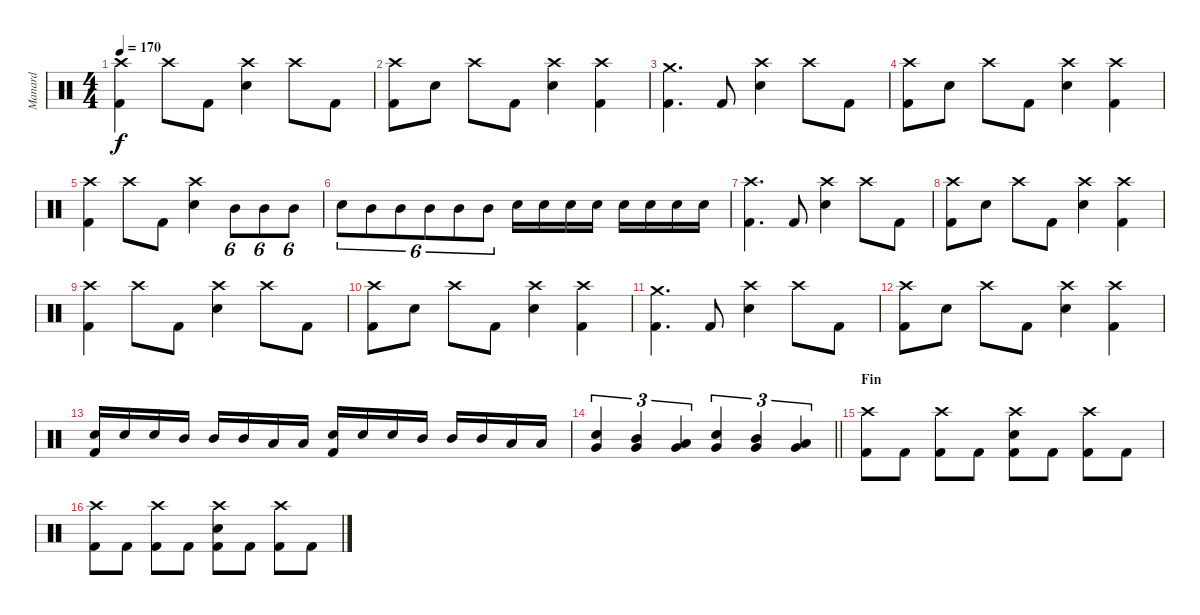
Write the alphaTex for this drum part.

\track ("Manard" "Manard") {instrument percussion}
\staff {score}
\articulation defaults
\ts (4 4)
\tempo 170
\clef neutral
\ks c
("Crash high (hit)" "Kick (hit) 2").4{dy f} "Crash high (hit)".8 "Kick (hit) 2".8 ("Crash high (hit)" "Snare (hit) 2").4 "Crash high (hit)".8 "Kick (hit) 2".8 |
("Crash high (hit)" "Kick (hit) 2").8 "Snare (hit) 2".8 "Crash high (hit)".8 "Kick (hit) 2".8 ("Crash high (hit)" "Snare (hit) 2").4 ("Crash high (hit)" "Kick (hit) 2").4 |
("Crash medium (hit)" "Kick (hit) 2").4{d} "Kick (hit) 2".8 ("Crash high (hit)" "Snare (hit) 2").4 "Crash high (hit)".8 "Kick (hit) 2".8 |
("Crash high (hit)" "Kick (hit) 2").8 "Snare (hit) 2".8 "Crash high (hit)".8 "Kick (hit) 2".8 ("Crash high (hit)" "Snare (hit) 2").4 ("Crash high (hit)" "Kick (hit) 2").4 |
("Crash high (hit)" "Kick (hit) 2").4 "Crash high (hit)".8 "Kick (hit) 2".8 ("Crash high (hit)" "Snare (hit) 2").4 "Mid Tom (hit)".8{tu (6 4)} "Mid Tom (hit)".8{tu (6 4)} "Mid Tom (hit)".8{tu (6 4)} |
"Snare (hit) 2".8{tu (6 4)} "Mid Tom (hit)".8{tu (6 4)} "Mid Tom (hit)".8{tu (6 4)} "Mid Tom (hit)".8{tu (6 4)} "Mid Tom (hit)".8{tu (6 4)} "Mid Tom (hit)".8{tu (6 4)} "Snare (hit) 2".16 "Snare (hit) 2".16 "Snare (hit) 2".16 "Snare (hit) 2".16 "Snare (hit) 2".16 "Snare (hit) 2".16 "Snare (hit) 2".16 "Snare (hit) 2".16 |
("Crash high (hit)" "Kick (hit) 2").4{d} "Kick (hit) 2".8 ("Crash high (hit)" "Snare (hit) 2").4 "Crash high (hit)".8 "Kick (hit) 2".8 |
("Crash high (hit)" "Kick (hit) 2").8 "Snare (hit) 2".8 "Crash high (hit)".8 "Kick (hit) 2".8 ("Crash high (hit)" "Snare (hit) 2").4 ("Crash high (hit)" "Kick (hit) 2").4 |
("Crash high (hit)" "Kick (hit) 2").4 "Crash high (hit)".8 "Kick (hit) 2".8 ("Crash high (hit)" "Snare (hit) 2").4 "Crash high (hit)".8 "Kick (hit) 2".8 |
("Crash high (hit)" "Kick (hit) 2").8 "Snare (hit) 2".8 "Crash high (hit)".8 "Kick (hit) 2".8 ("Crash high (hit)" "Snare (hit) 2").4 ("Crash high (hit)" "Kick (hit) 2").4 |
("Crash medium (hit)" "Kick (hit) 2").4{d} "Kick (hit) 2".8 ("Crash high (hit)" "Snare (hit) 2").4 "Crash high (hit)".8 "Kick (hit) 2".8 |
("Crash high (hit)" "Kick (hit) 2").8 "Snare (hit) 2".8 "Crash high (hit)".8 "Kick (hit) 2".8 ("Crash high (hit)" "Snare (hit) 2").4 ("Crash high (hit)" "Kick (hit) 2").4 |
("Snare (hit) 2" "Kick (hit) 2").16 "Snare (hit) 2".16 "Snare (hit) 2".16 "Mid Tom (hit)".16 "Mid Tom (hit)".16 "Mid Tom (hit)".16 "Low Tom (hit)".16 "Low Tom (hit)".16 ("Snare (hit) 2" "Kick (hit) 2").16 "Snare (hit) 2".16 "Snare (hit) 2".16 "Mid Tom (hit)".16 "Mid Tom (hit)".16 "Mid Tom (hit)".16 "Low Tom (hit)".16 "Low Tom (hit)".16 |
\barLineRight lightlight
("Very Low Tom (hit)" "Snare (hit) 2").4{tu (3 2)} ("Very Low Tom (hit)" "Mid Tom (hit)").4{tu (3 2)} ("Very Low Tom (hit)" "Low Tom (hit)").4{tu (3 2)} ("Very Low Tom (hit)" "Snare (hit) 2").4{tu (3 2)} ("Very Low Tom (hit)" "Mid Tom (hit)").4{tu (3 2)} ("Very Low Tom (hit)" "Low Tom (hit)").4{tu (3 2)} |
\section ("" "Fin")
("Crash high (hit)" "Kick (hit) 2").8 "Kick (hit) 2".8 ("Crash high (hit)" "Kick (hit) 2").8 "Kick (hit) 2".8 ("Crash high (hit)" "Snare (hit) 2" "Kick (hit) 2").8 "Kick (hit) 2".8 ("Crash high (hit)" "Kick (hit) 2").8 "Kick (hit) 2".8 |
("Crash high (hit)" "Kick (hit) 2").8 "Kick (hit) 2".8 ("Crash high (hit)" "Kick (hit) 2").8 "Kick (hit) 2".8 ("Crash high (hit)" "Snare (hit) 2" "Kick (hit) 2").8 "Kick (hit) 2".8 ("Crash high (hit)" "Kick (hit) 2").8 "Kick (hit) 2".8
